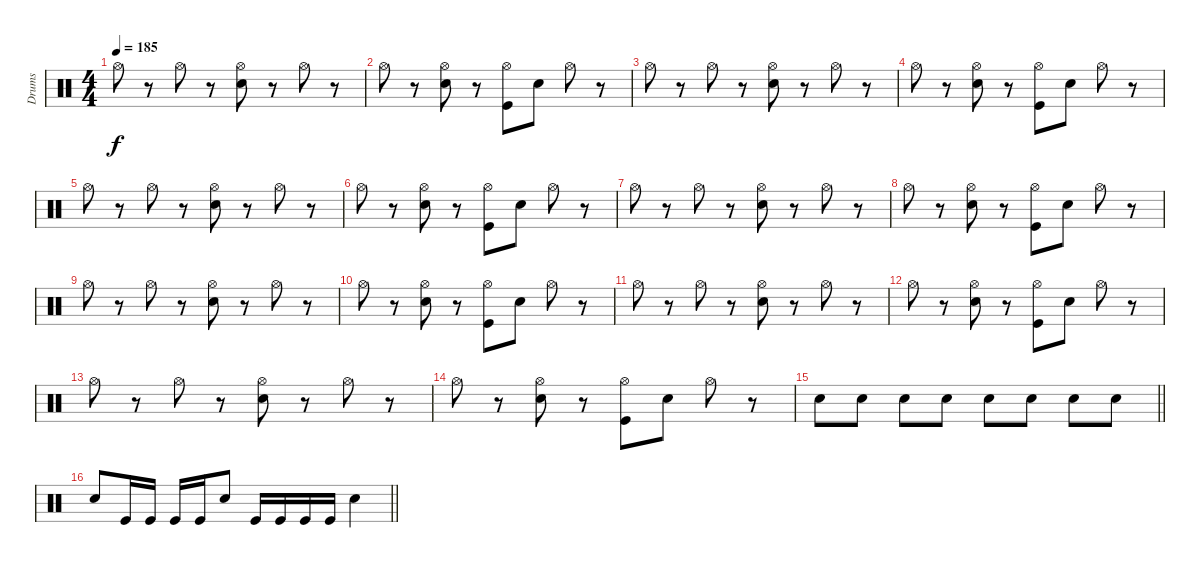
\track ("Drums" "Drums") {instrument percussion}
\staff {score}
\articulation defaults
\ts (4 4)
\tempo 185
\clef neutral
\ks c "Hi-Hat (open)".8{dy f}
r.8 "Hi-Hat (open)".8 r.8 ("Hi-Hat (open)" "Electric Snare (hit)").8 r.8 "Hi-Hat (open)".8 r.8 |
"Hi-Hat (open)".8 r.8 ("Hi-Hat (open)" "Electric Snare (hit)").8 r.8 ("Hi-Hat (open)" "Kick (hit)").8 "Electric Snare (hit)".8 "Hi-Hat (open)".8 r.8 |
"Hi-Hat (open)".8 r.8 "Hi-Hat (open)".8 r.8 ("Hi-Hat (open)" "Electric Snare (hit)").8 r.8 "Hi-Hat (open)".8 r.8 |
"Hi-Hat (open)".8 r.8 ("Hi-Hat (open)" "Electric Snare (hit)").8 r.8 ("Hi-Hat (open)" "Kick (hit)").8 "Electric Snare (hit)".8 "Hi-Hat (open)".8 r.8 |
"Hi-Hat (open)".8 r.8 "Hi-Hat (open)".8 r.8 ("Hi-Hat (open)" "Electric Snare (hit)").8 r.8 "Hi-Hat (open)".8 r.8 |
"Hi-Hat (open)".8 r.8 ("Hi-Hat (open)" "Electric Snare (hit)").8 r.8 ("Hi-Hat (open)" "Kick (hit)").8 "Electric Snare (hit)".8 "Hi-Hat (open)".8 r.8 |
"Hi-Hat (open)".8 r.8 "Hi-Hat (open)".8 r.8 ("Hi-Hat (open)" "Electric Snare (hit)").8 r.8 "Hi-Hat (open)".8 r.8 |
"Hi-Hat (open)".8 r.8 ("Hi-Hat (open)" "Electric Snare (hit)").8 r.8 ("Hi-Hat (open)" "Kick (hit)").8 "Electric Snare (hit)".8 "Hi-Hat (open)".8 r.8 |
"Hi-Hat (open)".8 r.8 "Hi-Hat (open)".8 r.8 ("Hi-Hat (open)" "Electric Snare (hit)").8 r.8 "Hi-Hat (open)".8 r.8 |
"Hi-Hat (open)".8 r.8 ("Hi-Hat (open)" "Electric Snare (hit)").8 r.8 ("Hi-Hat (open)" "Kick (hit)").8 "Electric Snare (hit)".8 "Hi-Hat (open)".8 r.8 |
"Hi-Hat (open)".8 r.8 "Hi-Hat (open)".8 r.8 ("Hi-Hat (open)" "Electric Snare (hit)").8 r.8 "Hi-Hat (open)".8 r.8 |
"Hi-Hat (open)".8 r.8 ("Hi-Hat (open)" "Electric Snare (hit)").8 r.8 ("Hi-Hat (open)" "Kick (hit)").8 "Electric Snare (hit)".8 "Hi-Hat (open)".8 r.8 |
"Hi-Hat (open)".8 r.8 "Hi-Hat (open)".8 r.8 ("Hi-Hat (open)" "Electric Snare (hit)").8 r.8 "Hi-Hat (open)".8 r.8 |
"Hi-Hat (open)".8 r.8 ("Hi-Hat (open)" "Electric Snare (hit)").8 r.8 ("Hi-Hat (open)" "Kick (hit)").8 "Electric Snare (hit)".8 "Hi-Hat (open)".8 r.8 |
\barLineRight lightlight "Electric Snare (hit)".8 "Electric Snare (hit)".8 "Electric Snare (hit)".8 "Electric Snare (hit)".8 "Electric Snare (hit)".8 "Electric Snare (hit)".8 "Electric Snare (hit)".8 "Electric Snare (hit)".8
|
\barLineRight lightlight "Electric Snare (hit)".8 "Kick (hit)".16 "Kick (hit)".16 "Kick (hit)".16 "Kick (hit)".16 "Electric Snare (hit)".8 "Kick (hit)".16 "Kick (hit)".16 "Kick (hit)".16 "Kick (hit)".16 "Electric Snare (hit)".4
